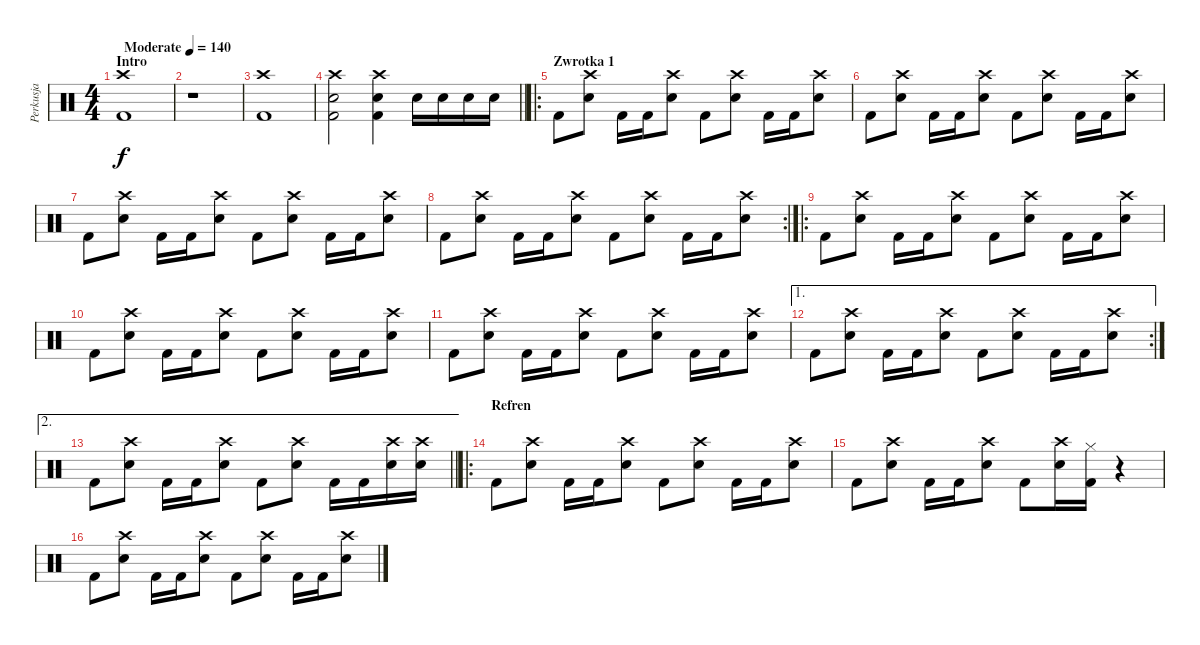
\track ("Perkusja" "Perkusja") {instrument percussion}
\staff {score}
\articulation defaults
\ts (4 4)
\section ("" "Intro")
\tempo (140 "Moderate")
\clef neutral
\ks c
("Crash high (hit)" "Kick (hit) 2").1{dy f} |
r.1 |
("Crash high (hit)" "Kick (hit) 2").1 |
\barLineRight lightlight
("Crash high (hit)" "Snare (hit) 2" "Kick (hit) 2").2 ("Crash high (hit)" "Snare (hit) 2" "Kick (hit) 2").4 "Snare (hit) 2".16 "Snare (hit) 2".16 "Snare (hit) 2".16 "Snare (hit) 2".16 |
\ro
\section ("" "Zwrotka 1")
"Kick (hit) 2".8 ("Crash high (hit)" "Snare (hit) 2").8 "Kick (hit) 2".16 "Kick (hit) 2".16 ("Crash high (hit)" "Snare (hit) 2").8 "Kick (hit) 2".8 ("Crash high (hit)" "Snare (hit) 2").8 "Kick (hit) 2".16 "Kick (hit) 2".16 ("Crash high (hit)" "Snare (hit) 2").8 |
"Kick (hit) 2".8 ("Crash high (hit)" "Snare (hit) 2").8 "Kick (hit) 2".16 "Kick (hit) 2".16 ("Crash high (hit)" "Snare (hit) 2").8 "Kick (hit) 2".8 ("Crash high (hit)" "Snare (hit) 2").8 "Kick (hit) 2".16 "Kick (hit) 2".16 ("Crash high (hit)" "Snare (hit) 2").8 |
"Kick (hit) 2".8 ("Crash high (hit)" "Snare (hit) 2").8 "Kick (hit) 2".16 "Kick (hit) 2".16 ("Crash high (hit)" "Snare (hit) 2").8 "Kick (hit) 2".8 ("Crash high (hit)" "Snare (hit) 2").8 "Kick (hit) 2".16 "Kick (hit) 2".16 ("Crash high (hit)" "Snare (hit) 2").8 |
\rc 2 "Kick (hit) 2".8
("Crash high (hit)" "Snare (hit) 2").8 "Kick (hit) 2".16 "Kick (hit) 2".16 ("Crash high (hit)" "Snare (hit) 2").8 "Kick (hit) 2".8 ("Crash high (hit)" "Snare (hit) 2").8 "Kick (hit) 2".16 "Kick (hit) 2".16 ("Crash high (hit)" "Snare (hit) 2").8 |
\ro "Kick (hit) 2".8
("Crash high (hit)" "Snare (hit) 2").8 "Kick (hit) 2".16 "Kick (hit) 2".16 ("Crash high (hit)" "Snare (hit) 2").8 "Kick (hit) 2".8 ("Crash high (hit)" "Snare (hit) 2").8 "Kick (hit) 2".16 "Kick (hit) 2".16 ("Crash high (hit)" "Snare (hit) 2").8 |
"Kick (hit) 2".8 ("Crash high (hit)" "Snare (hit) 2").8 "Kick (hit) 2".16 "Kick (hit) 2".16 ("Crash high (hit)" "Snare (hit) 2").8 "Kick (hit) 2".8 ("Crash high (hit)" "Snare (hit) 2").8 "Kick (hit) 2".16 "Kick (hit) 2".16 ("Crash high (hit)" "Snare (hit) 2").8 |
"Kick (hit) 2".8 ("Crash high (hit)" "Snare (hit) 2").8 "Kick (hit) 2".16 "Kick (hit) 2".16 ("Crash high (hit)" "Snare (hit) 2").8 "Kick (hit) 2".8 ("Crash high (hit)" "Snare (hit) 2").8 "Kick (hit) 2".16 "Kick (hit) 2".16 ("Crash high (hit)" "Snare (hit) 2").8 |
\ae 1
\rc 2 "Kick (hit) 2".8
("Crash high (hit)" "Snare (hit) 2").8 "Kick (hit) 2".16 "Kick (hit) 2".16 ("Crash high (hit)" "Snare (hit) 2").8 "Kick (hit) 2".8 ("Crash high (hit)" "Snare (hit) 2").8 "Kick (hit) 2".16 "Kick (hit) 2".16 ("Crash high (hit)" "Snare (hit) 2").8 |
\ae 2
\barLineRight lightlight "Kick (hit) 2".8
("Crash high (hit)" "Snare (hit) 2").8 "Kick (hit) 2".16 "Kick (hit) 2".16 ("Crash high (hit)" "Snare (hit) 2").8 "Kick (hit) 2".8 ("Crash high (hit)" "Snare (hit) 2").8 "Kick (hit) 2".16 "Kick (hit) 2".16 ("Crash high (hit)" "Snare (hit) 2").16 ("Crash high (hit)" "Snare (hit) 2").16 |
\ro
\section ("" "Refren")
"Kick (hit) 2".8 ("Crash high (hit)" "Snare (hit) 2").8 "Kick (hit) 2".16 "Kick (hit) 2".16 ("Crash high (hit)" "Snare (hit) 2").8 "Kick (hit) 2".8 ("Crash high (hit)" "Snare (hit) 2").8 "Kick (hit) 2".16 "Kick (hit) 2".16 ("Crash high (hit)" "Snare (hit) 2").8 |
"Kick (hit) 2".8 ("Crash high (hit)" "Snare (hit) 2").8 "Kick (hit) 2".16 "Kick (hit) 2".16 ("Crash high (hit)" "Snare (hit) 2").8 "Kick (hit) 2".8 ("Crash high (hit)" "Snare (hit) 2").16 ("Hi-Hat (closed)" "Kick (hit) 2").16 r.4 |
"Kick (hit) 2".8 ("Crash high (hit)" "Snare (hit) 2").8 "Kick (hit) 2".16 "Kick (hit) 2".16 ("Crash high (hit)" "Snare (hit) 2").8 "Kick (hit) 2".8 ("Crash high (hit)" "Snare (hit) 2").8 "Kick (hit) 2".16 "Kick (hit) 2".16 ("Crash high (hit)" "Snare (hit) 2").8
